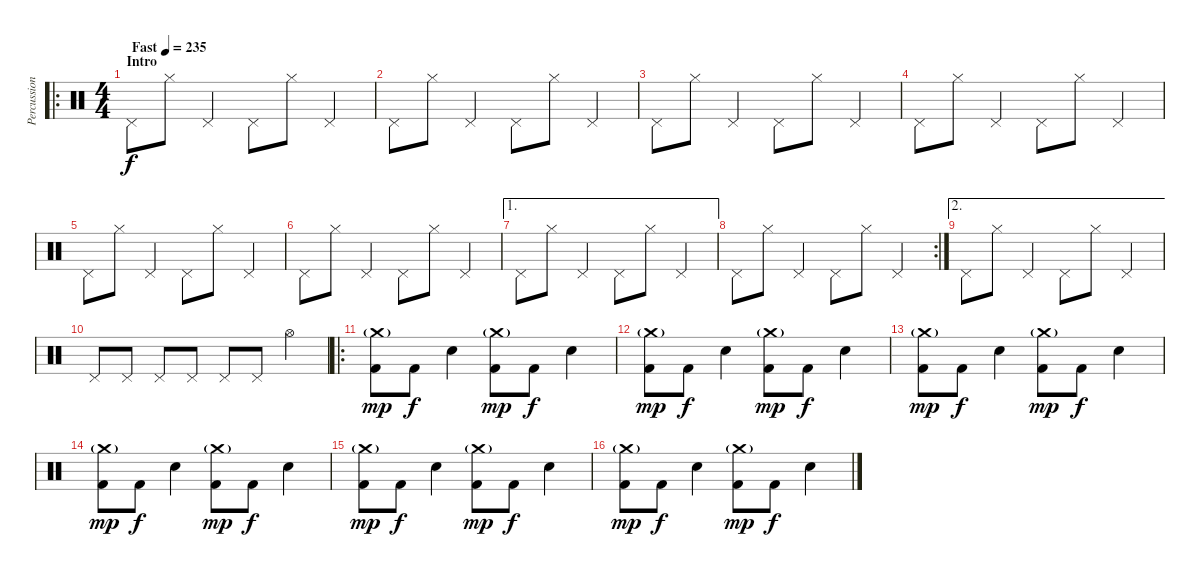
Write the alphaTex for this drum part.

\track ("Percussion" "Percussion") {instrument percussion}
\staff {score}
\articulation defaults
\ro
\ts (4 4)
\section ("" "Intro")
\tempo (235 "Fast")
\clef neutral
\ks c "Pedal Hi-Hat (hit)".8{dy f} "Hi-Hat (closed)".8 "Pedal Hi-Hat (hit)".4 "Pedal Hi-Hat (hit)".8 "Hi-Hat (closed)".8 "Pedal Hi-Hat (hit)".4
|
"Pedal Hi-Hat (hit)".8 "Hi-Hat (closed)".8 "Pedal Hi-Hat (hit)".4 "Pedal Hi-Hat (hit)".8 "Hi-Hat (closed)".8 "Pedal Hi-Hat (hit)".4 |
"Pedal Hi-Hat (hit)".8 "Hi-Hat (closed)".8 "Pedal Hi-Hat (hit)".4 "Pedal Hi-Hat (hit)".8 "Hi-Hat (closed)".8 "Pedal Hi-Hat (hit)".4 |
"Pedal Hi-Hat (hit)".8 "Hi-Hat (closed)".8 "Pedal Hi-Hat (hit)".4 "Pedal Hi-Hat (hit)".8 "Hi-Hat (closed)".8 "Pedal Hi-Hat (hit)".4 |
"Pedal Hi-Hat (hit)".8 "Hi-Hat (closed)".8 "Pedal Hi-Hat (hit)".4 "Pedal Hi-Hat (hit)".8 "Hi-Hat (closed)".8 "Pedal Hi-Hat (hit)".4 |
"Pedal Hi-Hat (hit)".8 "Hi-Hat (closed)".8 "Pedal Hi-Hat (hit)".4 "Pedal Hi-Hat (hit)".8 "Hi-Hat (closed)".8 "Pedal Hi-Hat (hit)".4 |
\ae 1 "Pedal Hi-Hat (hit)".8 "Hi-Hat (closed)".8 "Pedal Hi-Hat (hit)".4 "Pedal Hi-Hat (hit)".8 "Hi-Hat (closed)".8 "Pedal Hi-Hat (hit)".4
|
\rc 2 "Pedal Hi-Hat (hit)".8 "Hi-Hat (closed)".8 "Pedal Hi-Hat (hit)".4 "Pedal Hi-Hat (hit)".8 "Hi-Hat (closed)".8 "Pedal Hi-Hat (hit)".4
|
\ae 2 "Pedal Hi-Hat (hit)".8 "Hi-Hat (closed)".8 "Pedal Hi-Hat (hit)".4 "Pedal Hi-Hat (hit)".8 "Hi-Hat (closed)".8 "Pedal Hi-Hat (hit)".4
|
"Pedal Hi-Hat (hit)".8 "Pedal Hi-Hat (hit)".8 "Pedal Hi-Hat (hit)".8 "Pedal Hi-Hat (hit)".8 "Pedal Hi-Hat (hit)".8 "Pedal Hi-Hat (hit)".8 "Hi-Hat (open)".4 |
\ro
("Crash medium (hit)"{g} "Kick (hit) 2").8{dy mp} "Kick (hit) 2".8{dy f} "Electric Snare (hit)".4 ("Crash medium (hit)"{g} "Kick (hit) 2").8{dy mp} "Kick (hit) 2".8{dy f} "Electric Snare (hit)".4 |
("Crash medium (hit)"{g} "Kick (hit) 2").8{dy mp} "Kick (hit) 2".8{dy f} "Electric Snare (hit)".4 ("Crash medium (hit)"{g} "Kick (hit) 2").8{dy mp} "Kick (hit) 2".8{dy f} "Electric Snare (hit)".4 |
("Crash medium (hit)"{g} "Kick (hit) 2").8{dy mp} "Kick (hit) 2".8{dy f} "Electric Snare (hit)".4 ("Crash medium (hit)"{g} "Kick (hit) 2").8{dy mp} "Kick (hit) 2".8{dy f} "Electric Snare (hit)".4 |
("Crash medium (hit)"{g} "Kick (hit) 2").8{dy mp} "Kick (hit) 2".8{dy f} "Electric Snare (hit)".4 ("Crash medium (hit)"{g} "Kick (hit) 2").8{dy mp} "Kick (hit) 2".8{dy f} "Electric Snare (hit)".4 |
("Crash medium (hit)"{g} "Kick (hit) 2").8{dy mp} "Kick (hit) 2".8{dy f} "Electric Snare (hit)".4 ("Crash medium (hit)"{g} "Kick (hit) 2").8{dy mp} "Kick (hit) 2".8{dy f} "Electric Snare (hit)".4 |
("Crash medium (hit)"{g} "Kick (hit) 2").8{dy mp} "Kick (hit) 2".8{dy f} "Electric Snare (hit)".4 ("Crash medium (hit)"{g} "Kick (hit) 2").8{dy mp} "Kick (hit) 2".8{dy f} "Electric Snare (hit)".4
